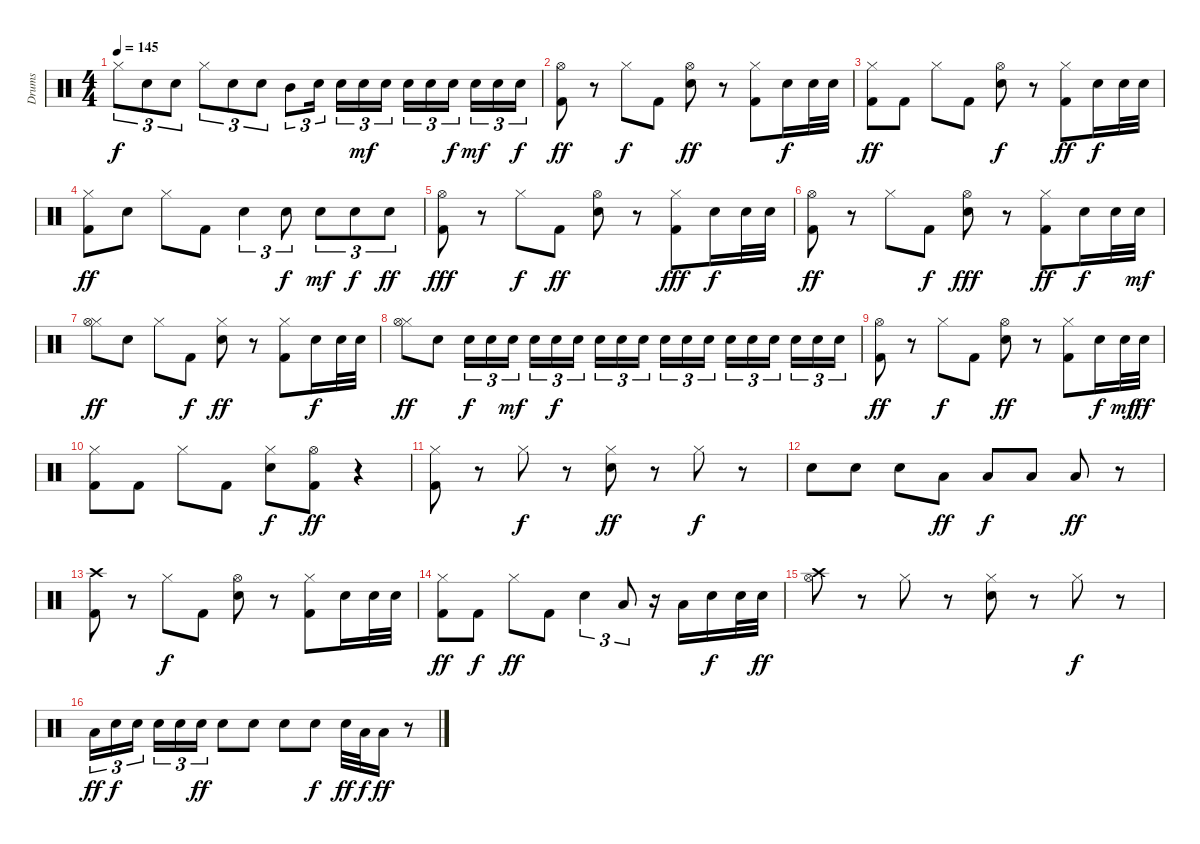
\track ("Drums" "Drums") {instrument percussion}
\staff {score}
\articulation defaults
\ts (4 4)
\tempo 145
\clef neutral
\ks c "Hi-Hat (closed)".8{tu (3 2) dy f} "Snare (hit) 2".8{tu (3 2)} "Snare (hit) 2".8{tu (3 2)} "Hi-Hat (closed)".8{tu (3 2)} "Snare (hit) 2".8{tu (3 2)} "Snare (hit) 2".8{tu (3 2)} "Mid Tom (hit)".8{tu (3 2)} "Snare (hit) 2".16{tu (3 2)} "Snare (hit) 2".16{tu (3 2)} "Snare (hit) 2".16{tu (3 2) dy mf} "Snare (hit) 2".16{tu (3 2)} "Snare (hit) 2".16{tu (3 2)} "Snare (hit) 2".16{tu (3 2)} "Snare (hit) 2".16{tu (3 2) dy f} "Snare (hit) 2".16{tu (3 2) dy mf} "Snare (hit) 2".16{tu (3 2)} "Snare (hit) 2".16{tu (3 2) dy f}
|
("Hi-Hat (open)" "Kick (hit) 2").8{dy ff} r.8 "Hi-Hat (closed)".8{dy f} "Kick (hit) 2".8 ("Hi-Hat (open)" "Snare (hit) 2").8{dy ff} r.8 ("Hi-Hat (closed)" "Kick (hit) 2").8 "Snare (hit) 2".16{dy f} "Snare (hit) 2".32 "Snare (hit) 2".32 |
("Hi-Hat (closed)" "Kick (hit) 2").8{dy ff} "Kick (hit) 2".8 "Hi-Hat (closed)".8 "Kick (hit) 2".8 ("Hi-Hat (open)" "Snare (hit) 2").8{dy f} r.8 ("Hi-Hat (closed)" "Kick (hit) 2").8{dy ff} "Snare (hit) 2".16{dy f} "Snare (hit) 2".32 "Snare (hit) 2".32 |
("Hi-Hat (closed)" "Kick (hit) 2").8{dy ff} "Snare (hit) 2".8 "Hi-Hat (closed)".8 "Kick (hit) 2".8 "Snare (hit) 2".4{tu (3 2)} "Snare (hit) 2".8{tu (3 2) dy f} "Snare (hit) 2".8{tu (3 2) dy mf} "Snare (hit) 2".8{tu (3 2) dy f} "Snare (hit) 2".8{tu (3 2) dy ff} |
("Hi-Hat (open)" "Kick (hit) 2").8{dy fff} r.8 "Hi-Hat (closed)".8{dy f} "Kick (hit) 2".8{dy ff} ("Hi-Hat (open)" "Snare (hit) 2").8 r.8 ("Hi-Hat (closed)" "Kick (hit) 2").8{dy fff} "Snare (hit) 2".16{dy f} "Snare (hit) 2".32 "Snare (hit) 2".32 |
("Hi-Hat (open)" "Kick (hit) 2").8{dy ff} r.8 "Hi-Hat (closed)".8 "Kick (hit) 2".8{dy f} ("Hi-Hat (open)" "Snare (hit) 2").8{dy fff} r.8 ("Hi-Hat (closed)" "Kick (hit) 2").8{dy ff} "Snare (hit) 2".16{dy f} "Snare (hit) 2".32 "Snare (hit) 2".32{dy mf} |
("Hi-Hat (closed)" "Hi-Hat (open)").8{dy ff} "Snare (hit) 2".8 "Hi-Hat (closed)".8 "Kick (hit) 2".8{dy f} ("Hi-Hat (closed)" "Snare (hit) 2").8{dy ff} r.8 ("Hi-Hat (closed)" "Kick (hit) 2").8 "Snare (hit) 2".16{dy f} "Snare (hit) 2".32 "Snare (hit) 2".32 |
("Hi-Hat (closed)" "Hi-Hat (open)").8{dy ff} "Snare (hit) 2".8 "Snare (hit) 2".16{tu (3 2) dy f} "Snare (hit) 2".16{tu (3 2)} "Snare (hit) 2".16{tu (3 2) dy mf} "Snare (hit) 2".16{tu (3 2)} "Snare (hit) 2".16{tu (3 2) dy f} "Snare (hit) 2".16{tu (3 2)} "Snare (hit) 2".16{tu (3 2)} "Snare (hit) 2".16{tu (3 2)} "Snare (hit) 2".16{tu (3 2)} "Snare (hit) 2".16{tu (3 2)} "Snare (hit) 2".16{tu (3 2)} "Snare (hit) 2".16{tu (3 2)} "Snare (hit) 2".16{tu (3 2)} "Snare (hit) 2".16{tu (3 2)} "Snare (hit) 2".16{tu (3 2)} "Snare (hit) 2".16{tu (3 2)} "Snare (hit) 2".16{tu (3 2)} "Snare (hit) 2".16{tu (3 2)} |
("Hi-Hat (open)" "Kick (hit) 2").8{dy ff} r.8 "Hi-Hat (closed)".8{dy f} "Kick (hit) 2".8 ("Hi-Hat (open)" "Snare (hit) 2").8{dy ff} r.8 ("Hi-Hat (closed)" "Kick (hit) 2").8 "Snare (hit) 2".16{dy f} "Snare (hit) 2".32{dy mf} "Snare (hit) 2".32{dy ff} |
("Hi-Hat (closed)" "Kick (hit) 2").8 "Kick (hit) 2".8 "Hi-Hat (closed)".8 "Kick (hit) 2".8 ("Hi-Hat (closed)" "Snare (hit) 2").8{dy f} ("Hi-Hat (open)" "Kick (hit) 2").8{dy ff} r.4 |
("Hi-Hat (closed)" "Kick (hit) 2").8 r.8 "Hi-Hat (closed)".8{dy f} r.8 ("Hi-Hat (closed)" "Snare (hit) 2").8{dy ff} r.8 "Hi-Hat (closed)".8{dy f} r.8 |
"Snare (hit) 2".8 "Snare (hit) 2".8 "Snare (hit) 2".8 "Low Tom (hit)".8{dy ff} "Low Tom (hit)".8{dy f} "Low Tom (hit)".8 "Low Floor Tom (hit)".8{dy ff} r.8 |
("Crash high (hit)" "Kick (hit) 2").8 r.8 "Hi-Hat (closed)".8{dy f} "Kick (hit) 2".8 ("Hi-Hat (open)" "Snare (hit) 2").8 r.8 ("Hi-Hat (closed)" "Kick (hit) 2").8 "Snare (hit) 2".16 "Snare (hit) 2".32 "Snare (hit) 2".32 |
("Hi-Hat (closed)" "Kick (hit) 2").8{dy ff} "Kick (hit) 2".8{dy f} "Hi-Hat (closed)".8{dy ff} "Kick (hit) 2".8 "Snare (hit) 2".4{tu (3 2)} "Low Tom (hit)".8{tu (3 2)} r.16 "Low Tom (hit)".16 "Snare (hit) 2".16{dy f} "Snare (hit) 2".32 "Snare (hit) 2".32{dy ff} |
("Hi-Hat (open)" "Crash high (hit)").8 r.8 "Hi-Hat (closed)".8 r.8 ("Hi-Hat (closed)" "Snare (hit) 2").8 r.8 "Hi-Hat (closed)".8{dy f} r.8 |
"Low Tom (hit)".16{tu (3 2) dy ff} "Snare (hit) 2".16{tu (3 2) dy f} "Snare (hit) 2".16{tu (3 2)} "Snare (hit) 2".16{tu (3 2)} "Snare (hit) 2".16{tu (3 2)} "Snare (hit) 2".16{tu (3 2) dy ff} "Snare (hit) 2".8 "Snare (hit) 2".8 "Snare (hit) 2".8 "Snare (hit) 2".8{dy f} "Snare (hit) 2".32{dy ff} "Low Tom (hit)".32{dy f} "Low Floor Tom (hit)".16{dy ff} r.8
